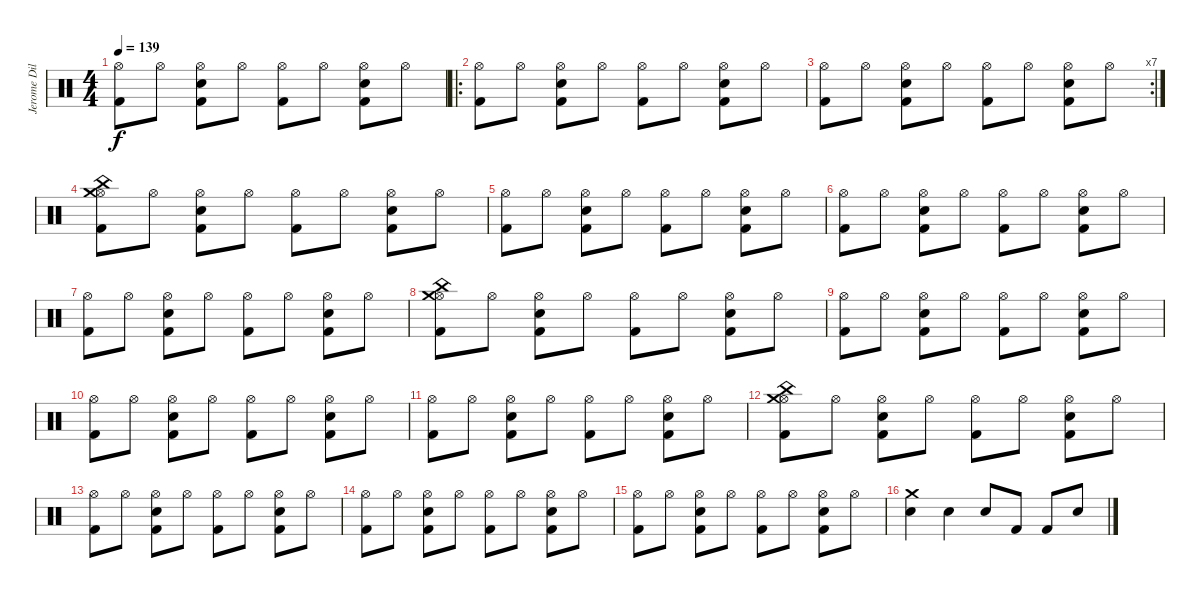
\track ("Jerome Dillon - Batería" "Jerome Dil") {instrument percussion}
\staff {score}
\articulation defaults
\ts (4 4)
\tempo 139
\clef neutral
\ks c
("Hi-Hat (open)" "Kick (hit) 2").8{dy f} "Hi-Hat (open)".8 ("Hi-Hat (open)" "Kick (hit) 2" "Electric Snare (hit)").8 "Hi-Hat (open)".8 ("Hi-Hat (open)" "Kick (hit) 2").8 "Hi-Hat (open)".8 ("Hi-Hat (open)" "Electric Snare (hit)" "Kick (hit) 2").8 "Hi-Hat (open)".8 |
\ro
("Hi-Hat (open)" "Kick (hit) 2").8 "Hi-Hat (open)".8 ("Hi-Hat (open)" "Kick (hit) 2" "Electric Snare (hit)").8 "Hi-Hat (open)".8 ("Hi-Hat (open)" "Kick (hit) 2").8 "Hi-Hat (open)".8 ("Hi-Hat (open)" "Electric Snare (hit)" "Kick (hit) 2").8 "Hi-Hat (open)".8 |
\rc 7
("Hi-Hat (open)" "Kick (hit) 2").8 "Hi-Hat (open)".8 ("Hi-Hat (open)" "Kick (hit) 2" "Electric Snare (hit)").8 "Hi-Hat (open)".8 ("Hi-Hat (open)" "Kick (hit) 2").8 "Hi-Hat (open)".8 ("Hi-Hat (open)" "Electric Snare (hit)" "Kick (hit) 2").8 "Hi-Hat (open)".8 |
("Hi-Hat (open)" "Kick (hit) 2" "China (hit)" "Crash medium (hit)").8 "Hi-Hat (open)".8 ("Hi-Hat (open)" "Kick (hit) 2" "Electric Snare (hit)").8 "Hi-Hat (open)".8 ("Hi-Hat (open)" "Kick (hit) 2").8 "Hi-Hat (open)".8 ("Hi-Hat (open)" "Electric Snare (hit)" "Kick (hit) 2").8 "Hi-Hat (open)".8 |
("Hi-Hat (open)" "Kick (hit) 2").8 "Hi-Hat (open)".8 ("Hi-Hat (open)" "Kick (hit) 2" "Electric Snare (hit)").8 "Hi-Hat (open)".8 ("Hi-Hat (open)" "Kick (hit) 2").8 "Hi-Hat (open)".8 ("Hi-Hat (open)" "Electric Snare (hit)" "Kick (hit) 2").8 "Hi-Hat (open)".8 |
("Hi-Hat (open)" "Kick (hit) 2").8 "Hi-Hat (open)".8 ("Hi-Hat (open)" "Kick (hit) 2" "Electric Snare (hit)").8 "Hi-Hat (open)".8 ("Hi-Hat (open)" "Kick (hit) 2").8 "Hi-Hat (open)".8 ("Hi-Hat (open)" "Electric Snare (hit)" "Kick (hit) 2").8 "Hi-Hat (open)".8 |
("Hi-Hat (open)" "Kick (hit) 2").8 "Hi-Hat (open)".8 ("Hi-Hat (open)" "Kick (hit) 2" "Electric Snare (hit)").8 "Hi-Hat (open)".8 ("Hi-Hat (open)" "Kick (hit) 2").8 "Hi-Hat (open)".8 ("Hi-Hat (open)" "Electric Snare (hit)" "Kick (hit) 2").8 "Hi-Hat (open)".8 |
("Hi-Hat (open)" "Kick (hit) 2" "Crash medium (hit)" "China (hit)").8 "Hi-Hat (open)".8 ("Hi-Hat (open)" "Kick (hit) 2" "Electric Snare (hit)").8 "Hi-Hat (open)".8 ("Hi-Hat (open)" "Kick (hit) 2").8 "Hi-Hat (open)".8 ("Hi-Hat (open)" "Electric Snare (hit)" "Kick (hit) 2").8 "Hi-Hat (open)".8 |
("Hi-Hat (open)" "Kick (hit) 2").8 "Hi-Hat (open)".8 ("Hi-Hat (open)" "Kick (hit) 2" "Electric Snare (hit)").8 "Hi-Hat (open)".8 ("Hi-Hat (open)" "Kick (hit) 2").8 "Hi-Hat (open)".8 ("Hi-Hat (open)" "Electric Snare (hit)" "Kick (hit) 2").8 "Hi-Hat (open)".8 |
("Hi-Hat (open)" "Kick (hit) 2").8 "Hi-Hat (open)".8 ("Hi-Hat (open)" "Kick (hit) 2" "Electric Snare (hit)").8 "Hi-Hat (open)".8 ("Hi-Hat (open)" "Kick (hit) 2").8 "Hi-Hat (open)".8 ("Hi-Hat (open)" "Electric Snare (hit)" "Kick (hit) 2").8 "Hi-Hat (open)".8 |
("Hi-Hat (open)" "Kick (hit) 2").8 "Hi-Hat (open)".8 ("Hi-Hat (open)" "Kick (hit) 2" "Electric Snare (hit)").8 "Hi-Hat (open)".8 ("Hi-Hat (open)" "Kick (hit) 2").8 "Hi-Hat (open)".8 ("Hi-Hat (open)" "Electric Snare (hit)" "Kick (hit) 2").8 "Hi-Hat (open)".8 |
("Hi-Hat (open)" "Kick (hit) 2" "China (hit)" "Crash medium (hit)").8 "Hi-Hat (open)".8 ("Hi-Hat (open)" "Kick (hit) 2" "Electric Snare (hit)").8 "Hi-Hat (open)".8 ("Hi-Hat (open)" "Kick (hit) 2").8 "Hi-Hat (open)".8 ("Hi-Hat (open)" "Electric Snare (hit)" "Kick (hit) 2").8 "Hi-Hat (open)".8 |
("Hi-Hat (open)" "Kick (hit) 2").8 "Hi-Hat (open)".8 ("Hi-Hat (open)" "Kick (hit) 2" "Electric Snare (hit)").8 "Hi-Hat (open)".8 ("Hi-Hat (open)" "Kick (hit) 2").8 "Hi-Hat (open)".8 ("Hi-Hat (open)" "Electric Snare (hit)" "Kick (hit) 2").8 "Hi-Hat (open)".8 |
("Hi-Hat (open)" "Kick (hit) 2").8 "Hi-Hat (open)".8 ("Hi-Hat (open)" "Kick (hit) 2" "Electric Snare (hit)").8 "Hi-Hat (open)".8 ("Hi-Hat (open)" "Kick (hit) 2").8 "Hi-Hat (open)".8 ("Hi-Hat (open)" "Electric Snare (hit)" "Kick (hit) 2").8 "Hi-Hat (open)".8 |
("Hi-Hat (open)" "Kick (hit) 2").8 "Hi-Hat (open)".8 ("Hi-Hat (open)" "Kick (hit) 2" "Electric Snare (hit)").8 "Hi-Hat (open)".8 ("Hi-Hat (open)" "Kick (hit) 2").8 "Hi-Hat (open)".8 ("Hi-Hat (open)" "Electric Snare (hit)" "Kick (hit) 2").8 "Hi-Hat (open)".8 |
("Snare (hit) 2" "Crash medium (hit)").4 "Snare (hit) 2".4 "Snare (hit) 2".8 "Kick (hit) 2".8 "Kick (hit) 2".8 "Snare (hit) 2".8
